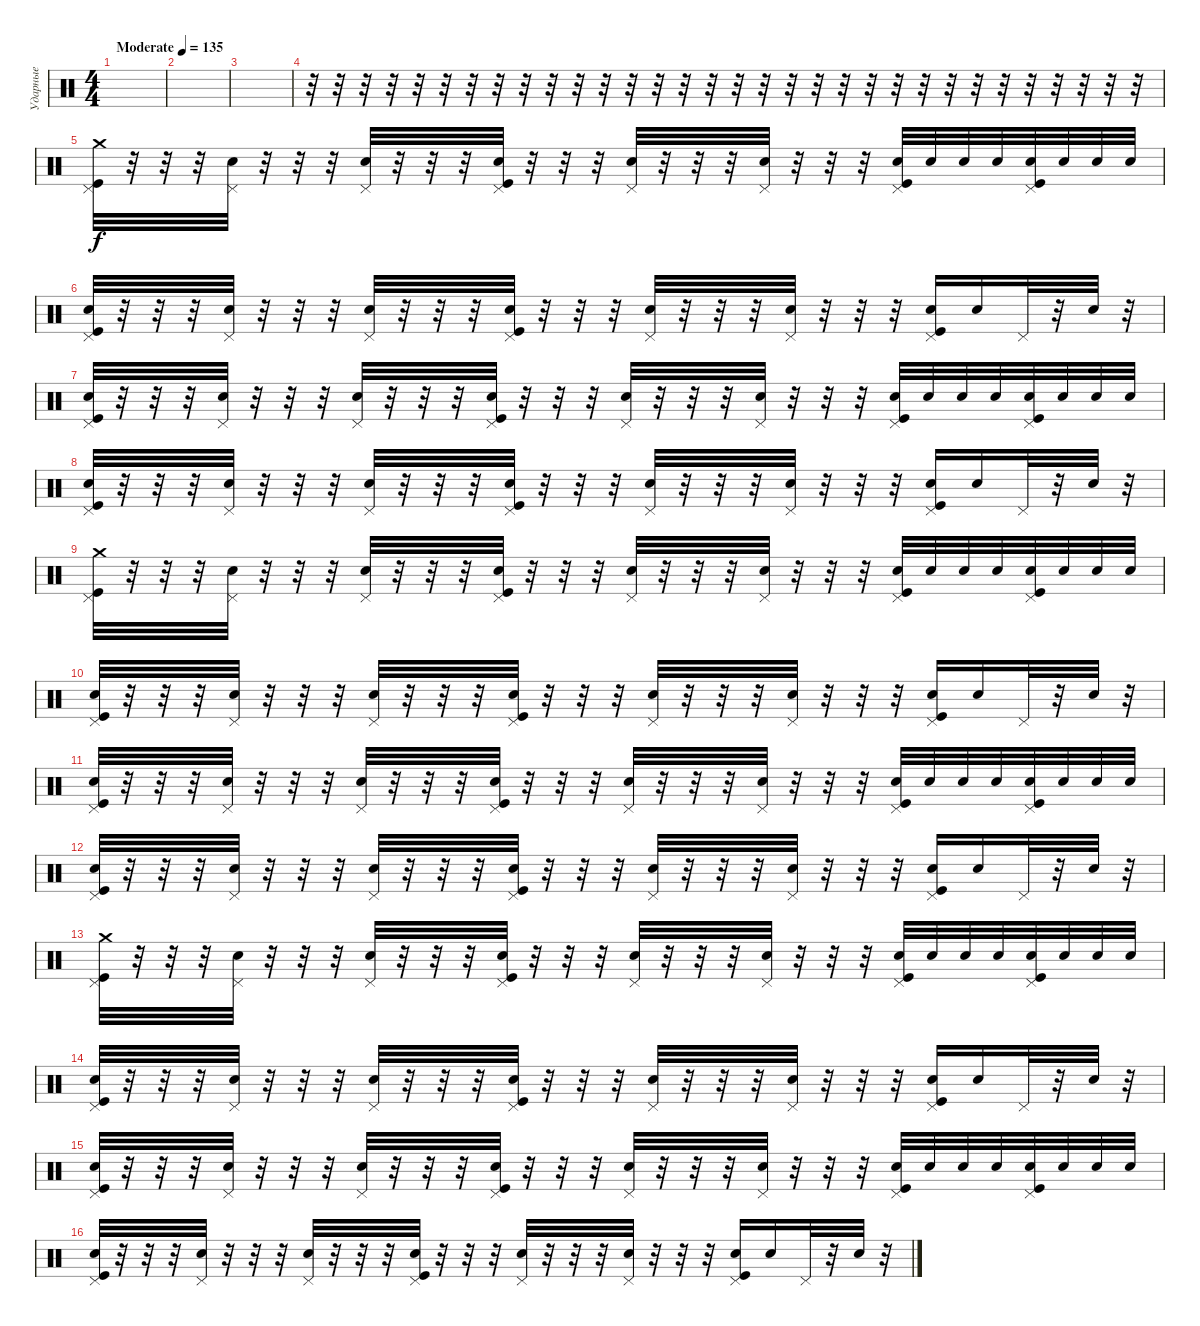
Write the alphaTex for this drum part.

\track ("Ударные" "Ударные") {instrument percussion}
\staff {score}
\articulation defaults
\ts (4 4)
\tempo (135 "Moderate")
\clef neutral
\ks c
|
|
|
r.32 r.32 r.32 r.32 r.32 r.32 r.32 r.32 r.32 r.32 r.32 r.32 r.32 r.32 r.32 r.32 r.32 r.32 r.32 r.32 r.32 r.32 r.32 r.32 r.32 r.32 r.32 r.32 r.32 r.32 r.32 r.32 |
("Crash medium (hit)" "Pedal Hi-Hat (hit)" "Kick (hit)").32 r.32 r.32 r.32 ("Pedal Hi-Hat (hit)" "Electric Snare (hit)").32 r.32 r.32 r.32 ("Pedal Hi-Hat (hit)" "Electric Snare (hit)").32 r.32 r.32 r.32 ("Pedal Hi-Hat (hit)" "Electric Snare (hit)" "Kick (hit)").32 r.32 r.32 r.32 ("Pedal Hi-Hat (hit)" "Electric Snare (hit)").32 r.32 r.32 r.32 ("Pedal Hi-Hat (hit)" "Electric Snare (hit)").32 r.32 r.32 r.32 ("Pedal Hi-Hat (hit)" "Electric Snare (hit)" "Kick (hit)").32 "Electric Snare (hit)".32 "Electric Snare (hit)".32 "Electric Snare (hit)".32 ("Pedal Hi-Hat (hit)" "Electric Snare (hit)" "Kick (hit)").32 "Electric Snare (hit)".32 "Electric Snare (hit)".32 "Electric Snare (hit)".32 |
("Pedal Hi-Hat (hit)" "Electric Snare (hit)" "Kick (hit)").32 r.32 r.32 r.32 ("Pedal Hi-Hat (hit)" "Electric Snare (hit)").32 r.32 r.32 r.32 ("Pedal Hi-Hat (hit)" "Electric Snare (hit)").32 r.32 r.32 r.32 ("Pedal Hi-Hat (hit)" "Kick (hit)" "Electric Snare (hit)").32 r.32 r.32 r.32 ("Pedal Hi-Hat (hit)" "Electric Snare (hit)").32 r.32 r.32 r.32 ("Pedal Hi-Hat (hit)" "Electric Snare (hit)").32 r.32 r.32 r.32 ("Pedal Hi-Hat (hit)" "Electric Snare (hit)" "Kick (hit)").16 "Electric Snare (hit)".16 "Pedal Hi-Hat (hit)".32 r.32 "Electric Snare (hit)".32 r.32 |
("Pedal Hi-Hat (hit)" "Kick (hit)" "Electric Snare (hit)").32 r.32 r.32 r.32 ("Pedal Hi-Hat (hit)" "Electric Snare (hit)").32 r.32 r.32 r.32 ("Pedal Hi-Hat (hit)" "Electric Snare (hit)").32 r.32 r.32 r.32 ("Pedal Hi-Hat (hit)" "Electric Snare (hit)" "Kick (hit)").32 r.32 r.32 r.32 ("Pedal Hi-Hat (hit)" "Electric Snare (hit)").32 r.32 r.32 r.32 ("Pedal Hi-Hat (hit)" "Electric Snare (hit)").32 r.32 r.32 r.32 ("Pedal Hi-Hat (hit)" "Electric Snare (hit)" "Kick (hit)").32 "Electric Snare (hit)".32 "Electric Snare (hit)".32 "Electric Snare (hit)".32 ("Pedal Hi-Hat (hit)" "Electric Snare (hit)" "Kick (hit)").32 "Electric Snare (hit)".32 "Electric Snare (hit)".32 "Electric Snare (hit)".32 |
("Pedal Hi-Hat (hit)" "Electric Snare (hit)" "Kick (hit)").32 r.32 r.32 r.32 ("Pedal Hi-Hat (hit)" "Electric Snare (hit)").32 r.32 r.32 r.32 ("Pedal Hi-Hat (hit)" "Electric Snare (hit)").32 r.32 r.32 r.32 ("Pedal Hi-Hat (hit)" "Kick (hit)" "Electric Snare (hit)").32 r.32 r.32 r.32 ("Pedal Hi-Hat (hit)" "Electric Snare (hit)").32 r.32 r.32 r.32 ("Pedal Hi-Hat (hit)" "Electric Snare (hit)").32 r.32 r.32 r.32 ("Pedal Hi-Hat (hit)" "Electric Snare (hit)" "Kick (hit)").16 "Electric Snare (hit)".16 "Pedal Hi-Hat (hit)".32 r.32 "Electric Snare (hit)".32 r.32 |
("Crash medium (hit)" "Pedal Hi-Hat (hit)" "Kick (hit)").32 r.32 r.32 r.32 ("Pedal Hi-Hat (hit)" "Electric Snare (hit)").32 r.32 r.32 r.32 ("Pedal Hi-Hat (hit)" "Electric Snare (hit)").32 r.32 r.32 r.32 ("Pedal Hi-Hat (hit)" "Electric Snare (hit)" "Kick (hit)").32 r.32 r.32 r.32 ("Pedal Hi-Hat (hit)" "Electric Snare (hit)").32 r.32 r.32 r.32 ("Pedal Hi-Hat (hit)" "Electric Snare (hit)").32 r.32 r.32 r.32 ("Pedal Hi-Hat (hit)" "Electric Snare (hit)" "Kick (hit)").32 "Electric Snare (hit)".32 "Electric Snare (hit)".32 "Electric Snare (hit)".32 ("Pedal Hi-Hat (hit)" "Electric Snare (hit)" "Kick (hit)").32 "Electric Snare (hit)".32 "Electric Snare (hit)".32 "Electric Snare (hit)".32 |
("Pedal Hi-Hat (hit)" "Electric Snare (hit)" "Kick (hit)").32 r.32 r.32 r.32 ("Pedal Hi-Hat (hit)" "Electric Snare (hit)").32 r.32 r.32 r.32 ("Pedal Hi-Hat (hit)" "Electric Snare (hit)").32 r.32 r.32 r.32 ("Pedal Hi-Hat (hit)" "Kick (hit)" "Electric Snare (hit)").32 r.32 r.32 r.32 ("Pedal Hi-Hat (hit)" "Electric Snare (hit)").32 r.32 r.32 r.32 ("Pedal Hi-Hat (hit)" "Electric Snare (hit)").32 r.32 r.32 r.32 ("Pedal Hi-Hat (hit)" "Electric Snare (hit)" "Kick (hit)").16 "Electric Snare (hit)".16 "Pedal Hi-Hat (hit)".32 r.32 "Electric Snare (hit)".32 r.32 |
("Pedal Hi-Hat (hit)" "Kick (hit)" "Electric Snare (hit)").32 r.32 r.32 r.32 ("Pedal Hi-Hat (hit)" "Electric Snare (hit)").32 r.32 r.32 r.32 ("Pedal Hi-Hat (hit)" "Electric Snare (hit)").32 r.32 r.32 r.32 ("Pedal Hi-Hat (hit)" "Electric Snare (hit)" "Kick (hit)").32 r.32 r.32 r.32 ("Pedal Hi-Hat (hit)" "Electric Snare (hit)").32 r.32 r.32 r.32 ("Pedal Hi-Hat (hit)" "Electric Snare (hit)").32 r.32 r.32 r.32 ("Pedal Hi-Hat (hit)" "Electric Snare (hit)" "Kick (hit)").32 "Electric Snare (hit)".32 "Electric Snare (hit)".32 "Electric Snare (hit)".32 ("Pedal Hi-Hat (hit)" "Electric Snare (hit)" "Kick (hit)").32 "Electric Snare (hit)".32 "Electric Snare (hit)".32 "Electric Snare (hit)".32 |
("Pedal Hi-Hat (hit)" "Electric Snare (hit)" "Kick (hit)").32 r.32 r.32 r.32 ("Pedal Hi-Hat (hit)" "Electric Snare (hit)").32 r.32 r.32 r.32 ("Pedal Hi-Hat (hit)" "Electric Snare (hit)").32 r.32 r.32 r.32 ("Pedal Hi-Hat (hit)" "Kick (hit)" "Electric Snare (hit)").32 r.32 r.32 r.32 ("Pedal Hi-Hat (hit)" "Electric Snare (hit)").32 r.32 r.32 r.32 ("Pedal Hi-Hat (hit)" "Electric Snare (hit)").32 r.32 r.32 r.32 ("Pedal Hi-Hat (hit)" "Electric Snare (hit)" "Kick (hit)").16 "Electric Snare (hit)".16 "Pedal Hi-Hat (hit)".32 r.32 "Electric Snare (hit)".32 r.32 |
("Crash medium (hit)" "Pedal Hi-Hat (hit)" "Kick (hit)").32 r.32 r.32 r.32 ("Pedal Hi-Hat (hit)" "Electric Snare (hit)").32 r.32 r.32 r.32 ("Pedal Hi-Hat (hit)" "Electric Snare (hit)").32 r.32 r.32 r.32 ("Pedal Hi-Hat (hit)" "Electric Snare (hit)" "Kick (hit)").32 r.32 r.32 r.32 ("Pedal Hi-Hat (hit)" "Electric Snare (hit)").32 r.32 r.32 r.32 ("Pedal Hi-Hat (hit)" "Electric Snare (hit)").32 r.32 r.32 r.32 ("Pedal Hi-Hat (hit)" "Electric Snare (hit)" "Kick (hit)").32 "Electric Snare (hit)".32 "Electric Snare (hit)".32 "Electric Snare (hit)".32 ("Pedal Hi-Hat (hit)" "Electric Snare (hit)" "Kick (hit)").32 "Electric Snare (hit)".32 "Electric Snare (hit)".32 "Electric Snare (hit)".32 |
("Pedal Hi-Hat (hit)" "Electric Snare (hit)" "Kick (hit)").32 r.32 r.32 r.32 ("Pedal Hi-Hat (hit)" "Electric Snare (hit)").32 r.32 r.32 r.32 ("Pedal Hi-Hat (hit)" "Electric Snare (hit)").32 r.32 r.32 r.32 ("Pedal Hi-Hat (hit)" "Kick (hit)" "Electric Snare (hit)").32 r.32 r.32 r.32 ("Pedal Hi-Hat (hit)" "Electric Snare (hit)").32 r.32 r.32 r.32 ("Pedal Hi-Hat (hit)" "Electric Snare (hit)").32 r.32 r.32 r.32 ("Pedal Hi-Hat (hit)" "Electric Snare (hit)" "Kick (hit)").16 "Electric Snare (hit)".16 "Pedal Hi-Hat (hit)".32 r.32 "Electric Snare (hit)".32 r.32 |
("Pedal Hi-Hat (hit)" "Kick (hit)" "Electric Snare (hit)").32 r.32 r.32 r.32 ("Pedal Hi-Hat (hit)" "Electric Snare (hit)").32 r.32 r.32 r.32 ("Pedal Hi-Hat (hit)" "Electric Snare (hit)").32 r.32 r.32 r.32 ("Pedal Hi-Hat (hit)" "Electric Snare (hit)" "Kick (hit)").32 r.32 r.32 r.32 ("Pedal Hi-Hat (hit)" "Electric Snare (hit)").32 r.32 r.32 r.32 ("Pedal Hi-Hat (hit)" "Electric Snare (hit)").32 r.32 r.32 r.32 ("Pedal Hi-Hat (hit)" "Electric Snare (hit)" "Kick (hit)").32 "Electric Snare (hit)".32 "Electric Snare (hit)".32 "Electric Snare (hit)".32 ("Pedal Hi-Hat (hit)" "Electric Snare (hit)" "Kick (hit)").32 "Electric Snare (hit)".32 "Electric Snare (hit)".32 "Electric Snare (hit)".32 |
("Pedal Hi-Hat (hit)" "Electric Snare (hit)" "Kick (hit)").32 r.32 r.32 r.32 ("Pedal Hi-Hat (hit)" "Electric Snare (hit)").32 r.32 r.32 r.32 ("Pedal Hi-Hat (hit)" "Electric Snare (hit)").32 r.32 r.32 r.32 ("Pedal Hi-Hat (hit)" "Kick (hit)" "Electric Snare (hit)").32 r.32 r.32 r.32 ("Pedal Hi-Hat (hit)" "Electric Snare (hit)").32 r.32 r.32 r.32 ("Pedal Hi-Hat (hit)" "Electric Snare (hit)").32 r.32 r.32 r.32 ("Pedal Hi-Hat (hit)" "Electric Snare (hit)" "Kick (hit)").16 "Electric Snare (hit)".16 "Pedal Hi-Hat (hit)".32 r.32 "Electric Snare (hit)".32 r.32
